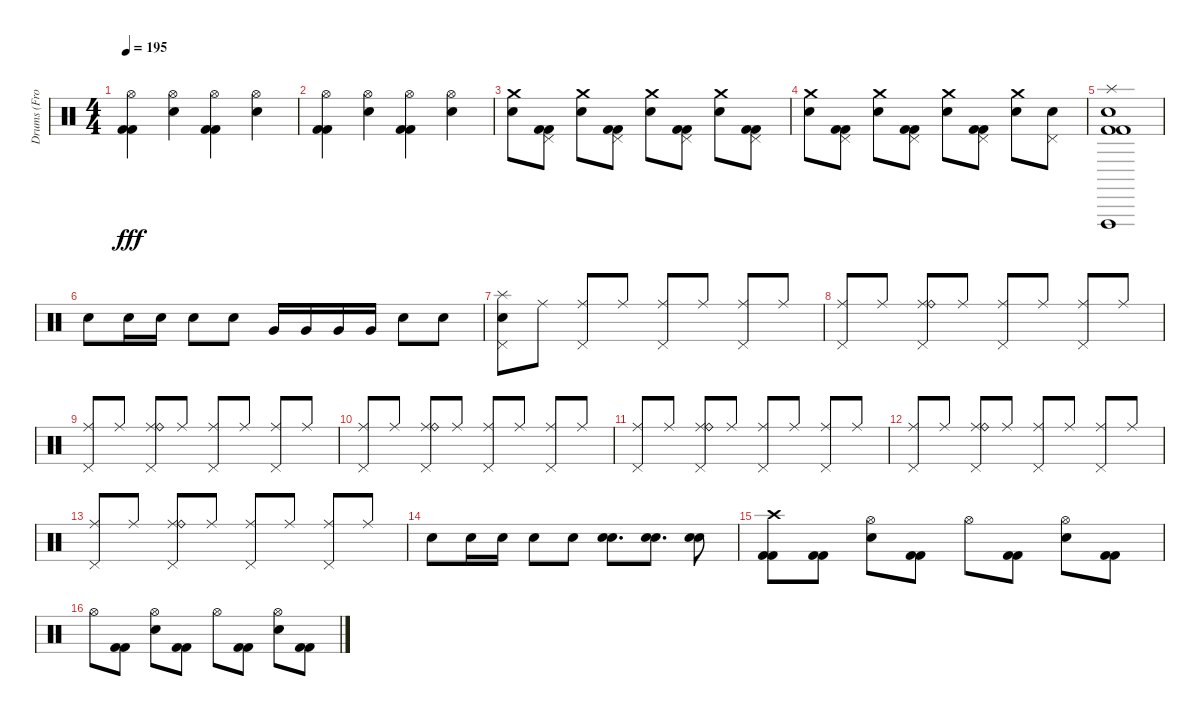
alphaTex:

\track ("Drums (From Other GP)" "Drums (Fro") {instrument percussion}
\staff {score}
\articulation defaults
\ts (4 4)
\tempo 195
\clef neutral
\ks c
("Hi-Hat (open)" "Kick (hit) 2" "Kick (hit) 2").4{dy fff} ("Hi-Hat (open)" "Electric Snare (hit)").4 ("Hi-Hat (open)" "Kick (hit) 2" "Kick (hit) 2").4 ("Hi-Hat (open)" "Electric Snare (hit)").4 |
("Hi-Hat (open)" "Kick (hit) 2" "Kick (hit) 2").4 ("Hi-Hat (open)" "Electric Snare (hit)").4 ("Hi-Hat (open)" "Kick (hit) 2" "Kick (hit) 2").4 ("Hi-Hat (open)" "Electric Snare (hit)").4 |
("Crash medium (hit)" "Electric Snare (hit)").8 ("Pedal Hi-Hat (hit)" "Kick (hit) 2" "Kick (hit) 2").8 ("Crash medium (hit)" "Electric Snare (hit)").8 ("Pedal Hi-Hat (hit)" "Kick (hit) 2" "Kick (hit) 2").8 ("Crash medium (hit)" "Electric Snare (hit)").8 ("Pedal Hi-Hat (hit)" "Kick (hit) 2" "Kick (hit) 2").8 ("Crash medium (hit)" "Electric Snare (hit)").8 ("Pedal Hi-Hat (hit)" "Kick (hit) 2" "Kick (hit) 2").8 |
("Crash medium (hit)" "Electric Snare (hit)").8 ("Pedal Hi-Hat (hit)" "Kick (hit) 2" "Kick (hit) 2").8 ("Crash medium (hit)" "Electric Snare (hit)").8 ("Pedal Hi-Hat (hit)" "Kick (hit) 2" "Kick (hit) 2").8 ("Crash medium (hit)" "Electric Snare (hit)").8 ("Pedal Hi-Hat (hit)" "Kick (hit) 2" "Kick (hit) 2").8 ("Crash medium (hit)" "Electric Snare (hit)").8 ("Electric Snare (hit)" "Pedal Hi-Hat (hit)").8 |
("Splash (hit)" "Electric Snare (hit)" "Vibraslap (hit)" "Kick (hit) 2" "Kick (hit) 2").1 |
"Electric Snare (hit)".8 "Electric Snare (hit)".16 "Electric Snare (hit)".16 "Electric Snare (hit)".8 "Electric Snare (hit)".8 "Very Low Tom (hit)".16 "Very Low Tom (hit)".16 "Very Low Tom (hit)".16 "Very Low Tom (hit)".16 "Electric Snare (hit)".8 "Electric Snare (hit)".8 |
("Splash (hit)" "Pedal Hi-Hat (hit)" "Electric Snare (hit)").8 "Ride (middle)".8 ("Ride (middle)" "Pedal Hi-Hat (hit)").8 "Ride (middle)".8 ("Ride (middle)" "Pedal Hi-Hat (hit)").8 "Ride (middle)".8 ("Ride (middle)" "Pedal Hi-Hat (hit)").8 "Ride (middle)".8 |
("Ride (middle)" "Pedal Hi-Hat (hit)").8 "Ride (middle)".8 ("Ride (middle)" "Pedal Hi-Hat (hit)" "Ride (bell)").8 "Ride (middle)".8 ("Ride (middle)" "Pedal Hi-Hat (hit)").8 "Ride (middle)".8 ("Ride (middle)" "Pedal Hi-Hat (hit)").8 "Ride (middle)".8 |
("Ride (middle)" "Pedal Hi-Hat (hit)").8 "Ride (middle)".8 ("Ride (middle)" "Pedal Hi-Hat (hit)" "Ride (bell)").8 "Ride (middle)".8 ("Ride (middle)" "Pedal Hi-Hat (hit)").8 "Ride (middle)".8 ("Ride (middle)" "Pedal Hi-Hat (hit)").8 "Ride (middle)".8 |
("Ride (middle)" "Pedal Hi-Hat (hit)").8 "Ride (middle)".8 ("Ride (middle)" "Pedal Hi-Hat (hit)" "Ride (bell)").8 "Ride (middle)".8 ("Ride (middle)" "Pedal Hi-Hat (hit)").8 "Ride (middle)".8 ("Ride (middle)" "Pedal Hi-Hat (hit)").8 "Ride (middle)".8 |
("Ride (middle)" "Pedal Hi-Hat (hit)").8 "Ride (middle)".8 ("Ride (middle)" "Pedal Hi-Hat (hit)" "Ride (bell)").8 "Ride (middle)".8 ("Ride (middle)" "Pedal Hi-Hat (hit)").8 "Ride (middle)".8 ("Ride (middle)" "Pedal Hi-Hat (hit)").8 "Ride (middle)".8 |
("Ride (middle)" "Pedal Hi-Hat (hit)").8 "Ride (middle)".8 ("Ride (middle)" "Pedal Hi-Hat (hit)" "Ride (bell)").8 "Ride (middle)".8 ("Ride (middle)" "Pedal Hi-Hat (hit)").8 "Ride (middle)".8 ("Ride (middle)" "Pedal Hi-Hat (hit)").8 "Ride (middle)".8 |
("Ride (middle)" "Pedal Hi-Hat (hit)").8 "Ride (middle)".8 ("Ride (middle)" "Pedal Hi-Hat (hit)" "Ride (bell)").8 "Ride (middle)".8 ("Ride (middle)" "Pedal Hi-Hat (hit)").8 "Ride (middle)".8 ("Ride (middle)" "Pedal Hi-Hat (hit)").8 "Ride (middle)".8 |
"Electric Snare (hit)".8 "Electric Snare (hit)".16 "Electric Snare (hit)".16 "Electric Snare (hit)".8 "Electric Snare (hit)".8 ("Electric Snare (hit)" "Electric Snare (hit)").8{d} ("Electric Snare (hit)" "Electric Snare (hit)").8{d} ("Electric Snare (hit)" "Electric Snare (hit)").8 |
("Crash high (hit)" "Kick (hit) 2" "Kick (hit) 2").8 ("Kick (hit) 2" "Kick (hit) 2").8 ("Hi-Hat (open)" "Electric Snare (hit)").8 ("Kick (hit) 2" "Kick (hit) 2").8 "Hi-Hat (open)".8 ("Kick (hit) 2" "Kick (hit) 2").8 ("Hi-Hat (open)" "Electric Snare (hit)").8 ("Kick (hit) 2" "Kick (hit) 2").8 |
"Hi-Hat (open)".8 ("Kick (hit) 2" "Kick (hit) 2").8 ("Hi-Hat (open)" "Electric Snare (hit)").8 ("Kick (hit) 2" "Kick (hit) 2").8 "Hi-Hat (open)".8 ("Kick (hit) 2" "Kick (hit) 2").8 ("Hi-Hat (open)" "Electric Snare (hit)").8 ("Kick (hit) 2" "Kick (hit) 2").8
